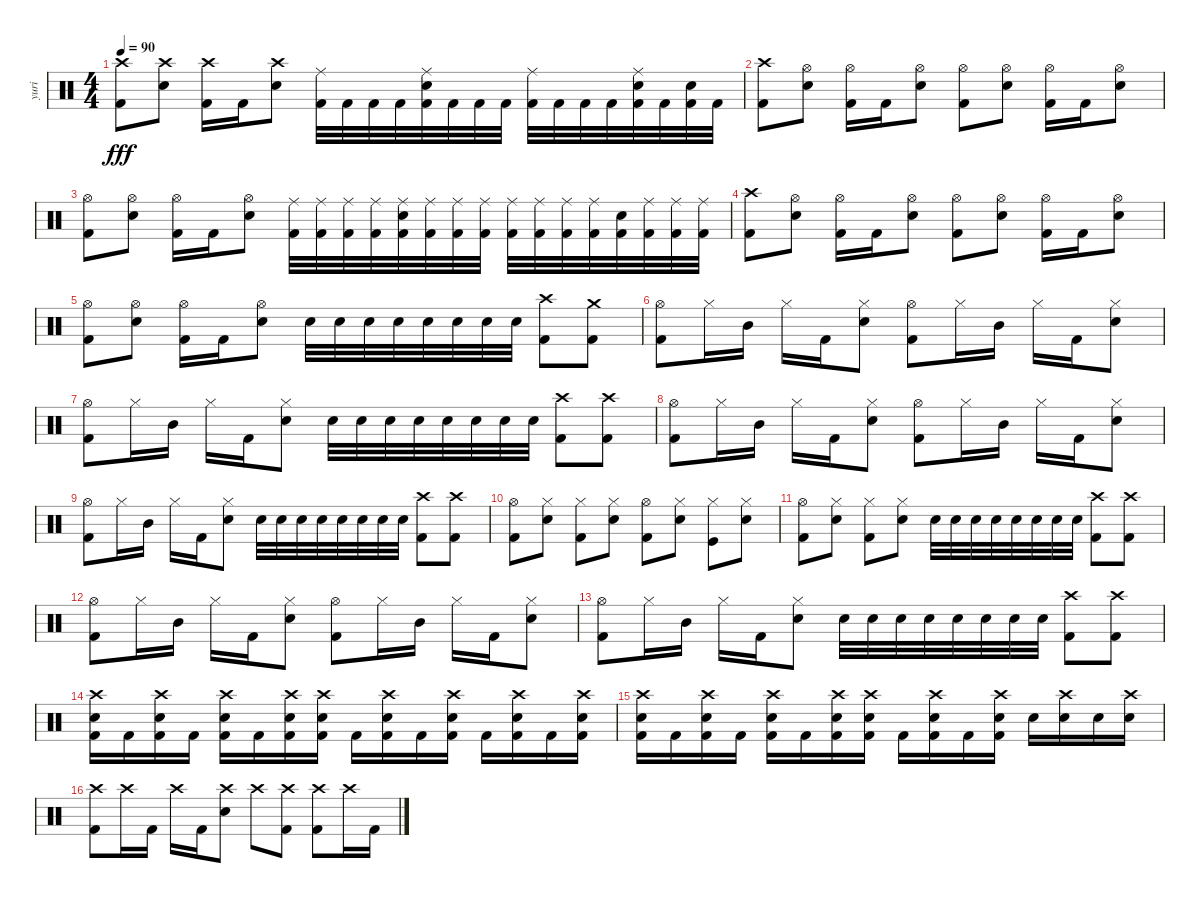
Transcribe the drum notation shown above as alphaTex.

\track ("yuri" "yuri") {instrument percussion}
\staff {score}
\articulation defaults
\ts (4 4)
\tempo 90
\clef neutral
\ks c
("Crash high (hit)" "Kick (hit) 2").8{dy fff} ("Crash high (hit)" "Snare (hit) 2").8 ("Crash high (hit)" "Kick (hit) 2").16 "Kick (hit) 2".16 ("Crash high (hit)" "Snare (hit) 2").8 ("Ride (middle)" "Kick (hit) 2").32 "Kick (hit) 2".32 "Kick (hit) 2".32 "Kick (hit) 2".32 ("Ride (middle)" "Snare (hit) 2" "Kick (hit) 2").32 "Kick (hit) 2".32 "Kick (hit) 2".32 "Kick (hit) 2".32 ("Ride (middle)" "Kick (hit) 2").32 "Kick (hit) 2".32 "Kick (hit) 2".32 "Kick (hit) 2".32 ("Ride (middle)" "Snare (hit) 2" "Kick (hit) 2").32 "Kick (hit) 2".32 ("Snare (hit) 2" "Kick (hit) 2").32 "Kick (hit) 2".32 |
("Crash high (hit)" "Kick (hit) 2").8 ("Hi-Hat (open)" "Snare (hit) 2").8 ("Hi-Hat (open)" "Kick (hit) 2").16 "Kick (hit) 2".16 ("Hi-Hat (open)" "Snare (hit) 2").8 ("Hi-Hat (open)" "Kick (hit) 2").8 ("Hi-Hat (open)" "Snare (hit) 2").8 ("Hi-Hat (open)" "Kick (hit) 2").16 "Kick (hit) 2".16 ("Hi-Hat (open)" "Snare (hit) 2").8 |
("Hi-Hat (open)" "Kick (hit) 2").8 ("Hi-Hat (open)" "Snare (hit) 2").8 ("Hi-Hat (open)" "Kick (hit) 2").16 "Kick (hit) 2".16 ("Hi-Hat (open)" "Snare (hit) 2").8 ("Ride (middle)" "Kick (hit) 2").32 ("Ride (middle)" "Kick (hit) 2").32 ("Ride (middle)" "Kick (hit) 2").32 ("Ride (middle)" "Kick (hit) 2").32 ("Ride (middle)" "Snare (hit) 2" "Kick (hit) 2").32 ("Ride (middle)" "Kick (hit) 2").32 ("Ride (middle)" "Kick (hit) 2").32 ("Ride (middle)" "Kick (hit) 2").32 ("Ride (middle)" "Kick (hit) 2").32 ("Ride (middle)" "Kick (hit) 2").32 ("Ride (middle)" "Kick (hit) 2").32 ("Ride (middle)" "Kick (hit) 2").32 ("Snare (hit) 2" "Kick (hit) 2").32 ("Ride (middle)" "Kick (hit) 2").32 ("Ride (middle)" "Kick (hit) 2").32 ("Ride (middle)" "Kick (hit) 2").32 |
("Crash high (hit)" "Kick (hit) 2").8 ("Hi-Hat (open)" "Snare (hit) 2").8 ("Hi-Hat (open)" "Kick (hit) 2").16 "Kick (hit) 2".16 ("Hi-Hat (open)" "Snare (hit) 2").8 ("Hi-Hat (open)" "Kick (hit) 2").8 ("Hi-Hat (open)" "Snare (hit) 2").8 ("Hi-Hat (open)" "Kick (hit) 2").16 "Kick (hit) 2".16 ("Hi-Hat (open)" "Snare (hit) 2").8 |
("Hi-Hat (open)" "Kick (hit) 2").8 ("Hi-Hat (open)" "Snare (hit) 2").8 ("Hi-Hat (open)" "Kick (hit) 2").16 "Kick (hit) 2".16 ("Hi-Hat (open)" "Snare (hit) 2").8 "Snare (hit) 2".32 "Snare (hit) 2".32 "Snare (hit) 2".32 "Snare (hit) 2".32 "Snare (hit) 2".32 "Snare (hit) 2".32 "Snare (hit) 2".32 "Snare (hit) 2".32 ("Crash high (hit)" "Kick (hit) 2").8 ("Crash medium (hit)" "Kick (hit) 2").8 |
("Hi-Hat (open)" "Kick (hit) 2").8 "Hi-Hat (closed)".16 "Mid Tom (hit)".16 "Hi-Hat (closed)".16 "Kick (hit) 2".16 ("Hi-Hat (closed)" "Snare (hit) 2").8 ("Hi-Hat (open)" "Kick (hit) 2").8 "Hi-Hat (closed)".16 "Mid Tom (hit)".16 "Hi-Hat (closed)".16 "Kick (hit) 2".16 ("Hi-Hat (closed)" "Snare (hit) 2").8 |
("Hi-Hat (open)" "Kick (hit) 2").8 "Hi-Hat (closed)".16 "Mid Tom (hit)".16 "Hi-Hat (closed)".16 "Kick (hit) 2".16 ("Hi-Hat (closed)" "Snare (hit) 2").8 "Snare (hit) 2".32 "Snare (hit) 2".32 "Snare (hit) 2".32 "Snare (hit) 2".32 "Snare (hit) 2".32 "Snare (hit) 2".32 "Snare (hit) 2".32 "Snare (hit) 2".32 ("Crash high (hit)" "Kick (hit) 2").8 ("Crash high (hit)" "Kick (hit) 2").8 |
("Hi-Hat (open)" "Kick (hit) 2").8 "Hi-Hat (closed)".16 "Mid Tom (hit)".16 "Hi-Hat (closed)".16 "Kick (hit) 2".16 ("Hi-Hat (closed)" "Snare (hit) 2").8 ("Hi-Hat (open)" "Kick (hit) 2").8 "Hi-Hat (closed)".16 "Mid Tom (hit)".16 "Hi-Hat (closed)".16 "Kick (hit) 2".16 ("Hi-Hat (closed)" "Snare (hit) 2").8 |
("Hi-Hat (open)" "Kick (hit) 2").8 "Hi-Hat (closed)".16 "Mid Tom (hit)".16 "Hi-Hat (closed)".16 "Kick (hit) 2".16 ("Hi-Hat (closed)" "Snare (hit) 2").8 "Snare (hit) 2".32 "Snare (hit) 2".32 "Snare (hit) 2".32 "Snare (hit) 2".32 "Snare (hit) 2".32 "Snare (hit) 2".32 "Snare (hit) 2".32 "Snare (hit) 2".32 ("Crash high (hit)" "Kick (hit) 2").8 ("Crash high (hit)" "Kick (hit) 2").8 |
("Hi-Hat (open)" "Kick (hit) 2").8 ("Hi-Hat (closed)" "Snare (hit) 2").8 ("Hi-Hat (closed)" "Kick (hit) 2").8 ("Hi-Hat (closed)" "Snare (hit) 2").8 ("Hi-Hat (open)" "Kick (hit) 2").8 ("Hi-Hat (closed)" "Snare (hit) 2").8 ("Hi-Hat (closed)" "Kick (hit)").8 ("Hi-Hat (closed)" "Snare (hit) 2").8 |
("Hi-Hat (open)" "Kick (hit) 2").8 ("Hi-Hat (closed)" "Snare (hit) 2").8 ("Hi-Hat (closed)" "Kick (hit) 2").8 ("Hi-Hat (closed)" "Snare (hit) 2").8 "Snare (hit) 2".32 "Snare (hit) 2".32 "Snare (hit) 2".32 "Snare (hit) 2".32 "Snare (hit) 2".32 "Snare (hit) 2".32 "Snare (hit) 2".32 "Snare (hit) 2".32 ("Crash high (hit)" "Kick (hit) 2").8 ("Crash high (hit)" "Kick (hit) 2").8 |
("Hi-Hat (open)" "Kick (hit) 2").8 "Hi-Hat (closed)".16 "Mid Tom (hit)".16 "Hi-Hat (closed)".16 "Kick (hit) 2".16 ("Hi-Hat (closed)" "Snare (hit) 2").8 ("Hi-Hat (open)" "Kick (hit) 2").8 "Hi-Hat (closed)".16 "Mid Tom (hit)".16 "Hi-Hat (closed)".16 "Kick (hit) 2".16 ("Hi-Hat (closed)" "Snare (hit) 2").8 |
("Hi-Hat (open)" "Kick (hit) 2").8 "Hi-Hat (closed)".16 "Mid Tom (hit)".16 "Hi-Hat (closed)".16 "Kick (hit) 2".16 ("Hi-Hat (closed)" "Snare (hit) 2").8 "Snare (hit) 2".32 "Snare (hit) 2".32 "Snare (hit) 2".32 "Snare (hit) 2".32 "Snare (hit) 2".32 "Snare (hit) 2".32 "Snare (hit) 2".32 "Snare (hit) 2".32 ("Crash high (hit)" "Kick (hit) 2").8 ("Crash high (hit)" "Kick (hit) 2").8 |
("Crash high (hit)" "Snare (hit) 2" "Kick (hit) 2").16 "Kick (hit) 2".16 ("Crash high (hit)" "Snare (hit) 2" "Kick (hit) 2").16 "Kick (hit) 2".16 ("Crash high (hit)" "Snare (hit) 2" "Kick (hit) 2").16 "Kick (hit) 2".16 ("Crash high (hit)" "Snare (hit) 2" "Kick (hit) 2").16 ("Crash high (hit)" "Snare (hit) 2" "Kick (hit) 2").16 "Kick (hit) 2".16 ("Crash high (hit)" "Snare (hit) 2" "Kick (hit) 2").16 "Kick (hit) 2".16 ("Crash high (hit)" "Snare (hit) 2" "Kick (hit) 2").16 "Kick (hit) 2".16 ("Crash high (hit)" "Snare (hit) 2" "Kick (hit) 2").16 "Kick (hit) 2".16 ("Crash high (hit)" "Snare (hit) 2" "Kick (hit) 2").16 |
("Crash high (hit)" "Snare (hit) 2" "Kick (hit) 2").16 "Kick (hit) 2".16 ("Crash high (hit)" "Snare (hit) 2" "Kick (hit) 2").16 "Kick (hit) 2".16 ("Crash high (hit)" "Snare (hit) 2" "Kick (hit) 2").16 "Kick (hit) 2".16 ("Crash high (hit)" "Snare (hit) 2" "Kick (hit) 2").16 ("Crash high (hit)" "Snare (hit) 2" "Kick (hit) 2").16 "Kick (hit) 2".16 ("Crash high (hit)" "Snare (hit) 2" "Kick (hit) 2").16 "Kick (hit) 2".16 ("Crash high (hit)" "Snare (hit) 2" "Kick (hit) 2").16 "Snare (hit) 2".16 ("Crash high (hit)" "Snare (hit) 2").16 "Snare (hit) 2".16 ("Crash high (hit)" "Snare (hit) 2").16 |
("Crash high (hit)" "Kick (hit) 2").8 "Crash high (hit)".16 "Kick (hit) 2".16 "Crash high (hit)".16 "Kick (hit) 2".16 ("Crash high (hit)" "Snare (hit) 2").8 "Crash high (hit)".8 ("Crash high (hit)" "Kick (hit) 2").8 ("Crash high (hit)" "Kick (hit) 2").8 "Crash high (hit)".16 "Kick (hit) 2".16
